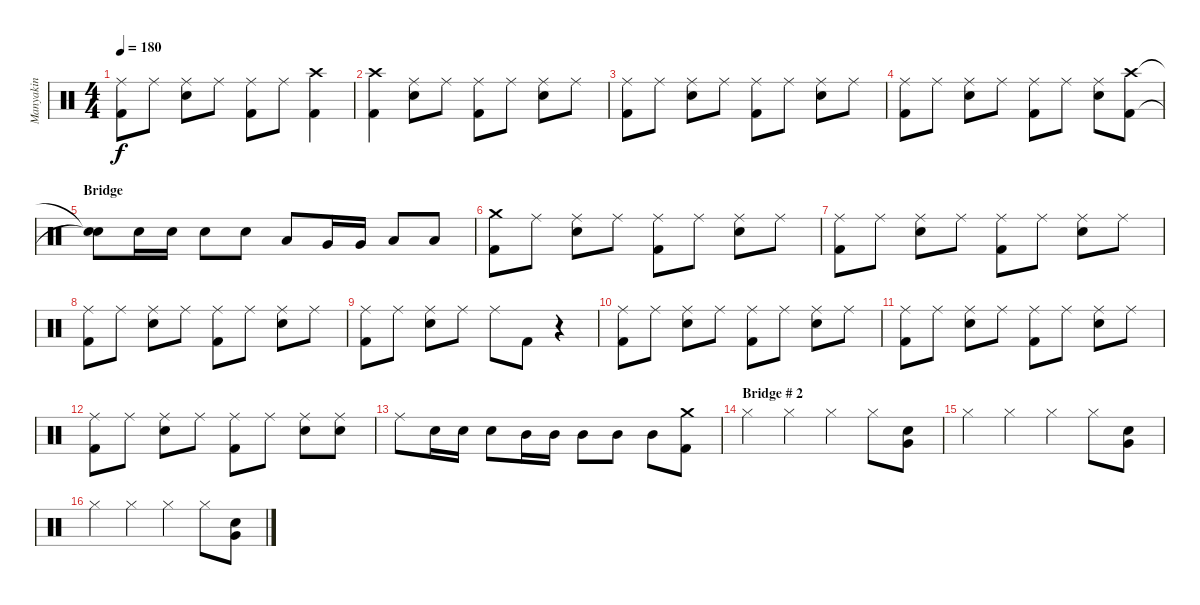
\track ("Manyakin" "Manyakin") {instrument percussion}
\staff {score}
\articulation defaults
\ts (4 4)
\tempo 180
\clef neutral
\ks c
("Kick (hit) 2" "Ride (middle)").8{dy f} "Ride (middle)".8 ("Snare (hit) 2" "Ride (middle)").8 "Ride (middle)".8 ("Kick (hit) 2" "Ride (middle)").8 "Ride (middle)".8 ("Kick (hit) 2" "Crash high (hit)").4 |
("Kick (hit) 2" "Crash high (hit)").4 ("Snare (hit) 2" "Ride (middle)").8 "Ride (middle)".8 ("Kick (hit) 2" "Ride (middle)").8 "Ride (middle)".8 ("Snare (hit) 2" "Ride (middle)").8 "Ride (middle)".8 |
("Kick (hit) 2" "Ride (middle)").8 "Ride (middle)".8 ("Snare (hit) 2" "Ride (middle)").8 "Ride (middle)".8 ("Kick (hit) 2" "Ride (middle)").8 "Ride (middle)".8 ("Snare (hit) 2" "Ride (middle)").8 "Ride (middle)".8 |
("Kick (hit) 2" "Ride (middle)").8 "Ride (middle)".8 ("Snare (hit) 2" "Ride (middle)").8 "Ride (middle)".8 ("Kick (hit) 2" "Ride (middle)").8 "Ride (middle)".8 ("Snare (hit) 2" "Ride (middle)").8 ("Kick (hit) 2" "Crash high (hit)").8 |
\section ("" "Bridge")
("Snare (hit)"{t} "Snare (hit)"{t}).8 "Electric Snare (hit)".16 "Snare (hit) 2".16 "Snare (hit) 2".8 "Snare (hit) 2".8 "Low Tom (hit)".8 "Very Low Tom (hit)".16 "Very Low Tom (hit)".16 "Low Floor Tom (hit)".8 "Low Floor Tom (hit)".8 |
("Kick (hit) 2" "Crash medium (hit)").8 "Ride (middle)".8 ("Snare (hit) 2" "Ride (middle)").8 "Ride (middle)".8 ("Kick (hit) 2" "Ride (middle)").8 "Ride (middle)".8 ("Snare (hit) 2" "Ride (middle)").8 "Ride (middle)".8 |
("Kick (hit) 2" "Ride (middle)").8 "Ride (middle)".8 ("Snare (hit) 2" "Ride (middle)").8 "Ride (middle)".8 ("Kick (hit) 2" "Ride (middle)").8 "Ride (middle)".8 ("Snare (hit) 2" "Ride (middle)").8 "Ride (middle)".8 |
("Kick (hit) 2" "Ride (middle)").8 "Ride (middle)".8 ("Snare (hit) 2" "Ride (middle)").8 "Ride (middle)".8 ("Kick (hit) 2" "Ride (middle)").8 "Ride (middle)".8 ("Snare (hit) 2" "Ride (middle)").8 "Ride (middle)".8 |
("Kick (hit) 2" "Ride (middle)").8 "Ride (middle)".8 ("Snare (hit) 2" "Ride (middle)").8 "Ride (middle)".8 "Ride (middle)".8 "Kick (hit) 2".8 r.4 |
("Kick (hit) 2" "Ride (middle)").8 "Ride (middle)".8 ("Snare (hit) 2" "Ride (middle)").8 "Ride (middle)".8 ("Kick (hit) 2" "Ride (middle)").8 "Ride (middle)".8 ("Snare (hit) 2" "Ride (middle)").8 "Ride (middle)".8 |
("Kick (hit) 2" "Ride (middle)").8 "Ride (middle)".8 ("Snare (hit) 2" "Ride (middle)").8 "Ride (middle)".8 ("Kick (hit) 2" "Ride (middle)").8 "Ride (middle)".8 ("Snare (hit) 2" "Ride (middle)").8 "Ride (middle)".8 |
("Kick (hit) 2" "Ride (middle)").8 "Ride (middle)".8 ("Snare (hit) 2" "Ride (middle)").8 "Ride (middle)".8 ("Kick (hit) 2" "Ride (middle)").8 "Ride (middle)".8 ("Snare (hit) 2" "Ride (middle)").8 ("Snare (hit) 2" "Ride (middle)").8 |
"Ride (middle)".8 "Snare (hit) 2".16 "Snare (hit) 2".16 "Snare (hit) 2".8 "Mid Tom (hit)".16 "Mid Tom (hit)".16 "Mid Tom (hit)".8 "Mid Tom (hit)".8 "Mid Tom (hit)".8 ("Kick (hit) 2" "Crash medium (hit)").8 |
\section ("" "Bridge # 2")
"Hi-Hat (closed)".4 "Hi-Hat (closed)".4 "Hi-Hat (closed)".4 "Hi-Hat (closed)".8 ("Snare (hit) 2" "Very Low Tom (hit)").8 |
"Hi-Hat (closed)".4 "Hi-Hat (closed)".4 "Hi-Hat (closed)".4 "Hi-Hat (closed)".8 ("Snare (hit) 2" "Very Low Tom (hit)").8 |
"Hi-Hat (closed)".4 "Hi-Hat (closed)".4 "Hi-Hat (closed)".4 "Hi-Hat (closed)".8 ("Snare (hit) 2" "Very Low Tom (hit)").8
